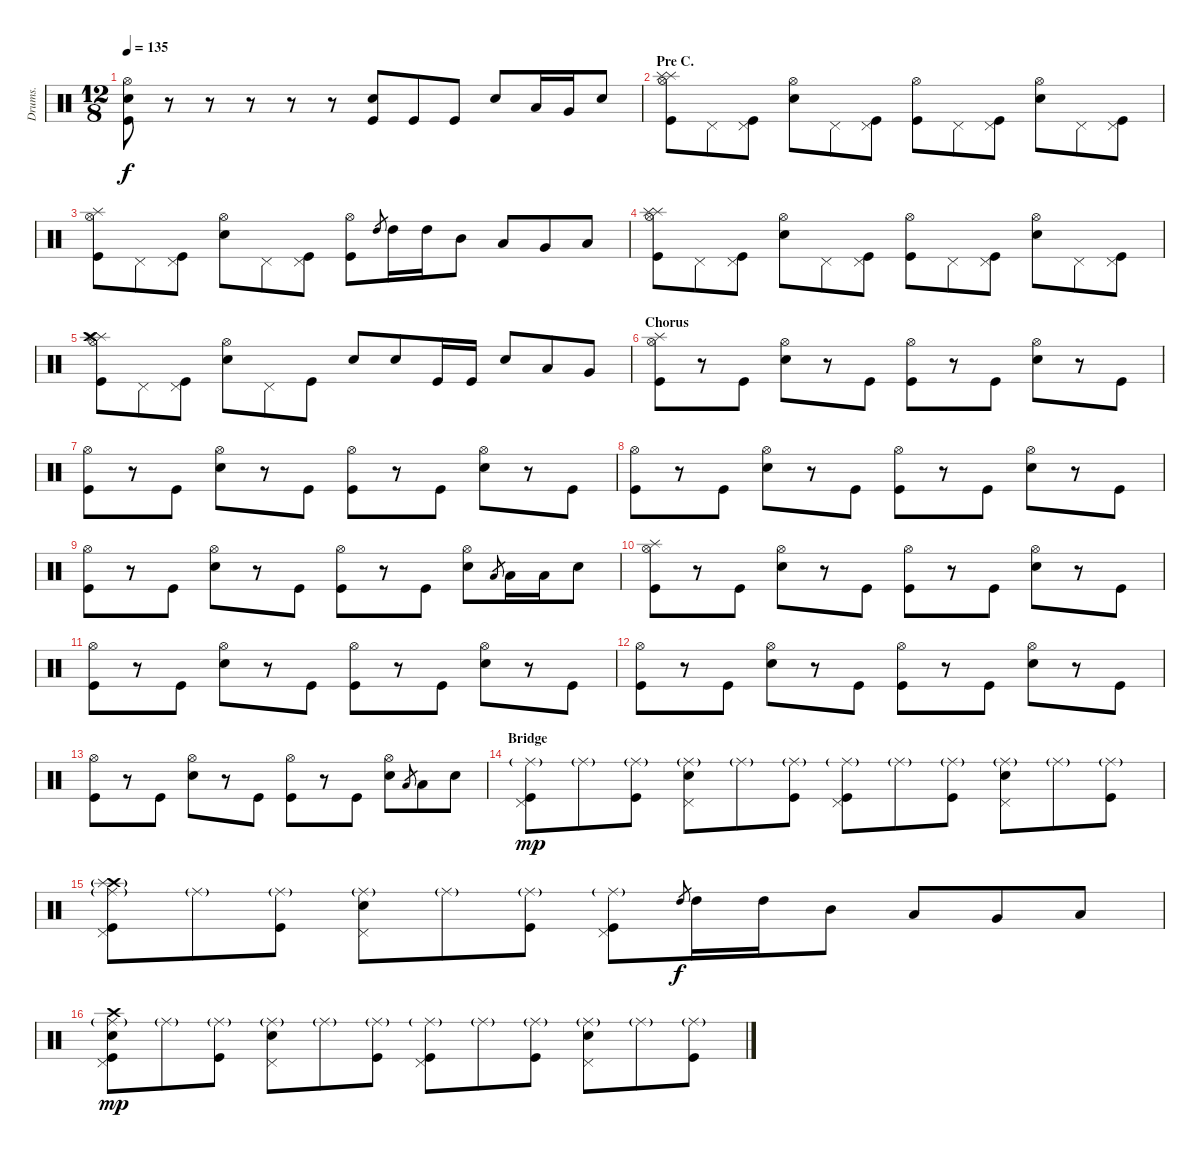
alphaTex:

\track ("Drums." "Drums.") {instrument percussion}
\staff {score}
\articulation defaults
\ts (12 8)
\tempo 135
\clef neutral
\ks c
("Hi-Hat (open)" "Snare (hit) 2" "Kick (hit)").8{dy f} r.8 r.8 r.8 r.8 r.8 ("Snare (hit) 2" "Kick (hit)").8 "Kick (hit)".8 "Kick (hit)".8 "Snare (hit) 2".8 "Low Tom (hit)".16 "Very Low Tom (hit)".16 "Snare (hit) 2".8 |
\section ("" "Pre C.")
("Hi-Hat (open)" "Splash (hit)" "Splash (hit)" "Kick (hit)").8 "Pedal Hi-Hat (hit)".8 ("Pedal Hi-Hat (hit)" "Kick (hit)").8 ("Hi-Hat (open)" "Snare (hit) 2").8 "Pedal Hi-Hat (hit)".8 ("Pedal Hi-Hat (hit)" "Kick (hit)").8 ("Hi-Hat (open)" "Kick (hit)").8 "Pedal Hi-Hat (hit)".8 ("Pedal Hi-Hat (hit)" "Kick (hit)").8 ("Hi-Hat (open)" "Snare (hit) 2").8 "Pedal Hi-Hat (hit)".8 ("Pedal Hi-Hat (hit)" "Kick (hit)").8 |
("Hi-Hat (open)" "Splash (hit)" "Kick (hit)").8 "Pedal Hi-Hat (hit)".8 ("Pedal Hi-Hat (hit)" "Kick (hit)").8 ("Hi-Hat (open)" "Snare (hit) 2").8 "Pedal Hi-Hat (hit)".8 ("Pedal Hi-Hat (hit)" "Kick (hit)").8 ("Hi-Hat (open)" "Kick (hit)").8 "High Tom (hit)".8{gr} "High Tom (hit)".16 "High Tom (hit)".16 "Mid Tom (hit)".8 "Low Tom (hit)".8 "Very Low Tom (hit)".8 "Low Floor Tom (hit)".8 |
("Hi-Hat (open)" "Splash (hit)" "Splash (hit)" "Kick (hit)").8 "Pedal Hi-Hat (hit)".8 ("Pedal Hi-Hat (hit)" "Kick (hit)").8 ("Hi-Hat (open)" "Snare (hit) 2").8 "Pedal Hi-Hat (hit)".8 ("Pedal Hi-Hat (hit)" "Kick (hit)").8 ("Hi-Hat (open)" "Kick (hit)").8 "Pedal Hi-Hat (hit)".8 ("Pedal Hi-Hat (hit)" "Kick (hit)").8 ("Hi-Hat (open)" "Snare (hit) 2").8 "Pedal Hi-Hat (hit)".8 ("Pedal Hi-Hat (hit)" "Kick (hit)").8 |
("Hi-Hat (open)" "Splash (hit)" "Splash (hit)" "Crash high (hit)" "Kick (hit)").8 "Pedal Hi-Hat (hit)".8 ("Pedal Hi-Hat (hit)" "Kick (hit)").8 ("Hi-Hat (open)" "Snare (hit) 2").8 "Pedal Hi-Hat (hit)".8 "Kick (hit)".8 "Snare (hit) 2".8 "Snare (hit) 2".8 "Kick (hit)".16 "Kick (hit)".16 "Snare (hit) 2".8 "Low Tom (hit)".8 "Very Low Tom (hit)".8 |
\section ("" "Chorus")
("Hi-Hat (open)" "Splash (hit)" "Kick (hit)").8 r.8 "Kick (hit)".8 ("Hi-Hat (open)" "Snare (hit) 2").8 r.8 "Kick (hit)".8 ("Hi-Hat (open)" "Kick (hit)").8 r.8 "Kick (hit)".8 ("Hi-Hat (open)" "Snare (hit) 2").8 r.8 "Kick (hit)".8 |
("Hi-Hat (open)" "Kick (hit)").8 r.8 "Kick (hit)".8 ("Hi-Hat (open)" "Snare (hit) 2").8 r.8 "Kick (hit)".8 ("Hi-Hat (open)" "Kick (hit)").8 r.8 "Kick (hit)".8 ("Hi-Hat (open)" "Snare (hit) 2").8 r.8 "Kick (hit)".8 |
("Hi-Hat (open)" "Kick (hit)").8 r.8 "Kick (hit)".8 ("Hi-Hat (open)" "Snare (hit) 2").8 r.8 "Kick (hit)".8 ("Hi-Hat (open)" "Kick (hit)").8 r.8 "Kick (hit)".8 ("Hi-Hat (open)" "Snare (hit) 2").8 r.8 "Kick (hit)".8 |
("Hi-Hat (open)" "Kick (hit)").8 r.8 "Kick (hit)".8 ("Hi-Hat (open)" "Snare (hit) 2").8 r.8 "Kick (hit)".8 ("Hi-Hat (open)" "Kick (hit)").8 r.8 "Kick (hit)".8 ("Hi-Hat (open)" "Snare (hit) 2").8 "Low Tom (hit)".8{gr} "Low Tom (hit)".16 "Low Tom (hit)".16 "Snare (hit) 2".8 |
("Hi-Hat (open)" "Splash (hit)" "Kick (hit)").8 r.8 "Kick (hit)".8 ("Hi-Hat (open)" "Snare (hit) 2").8 r.8 "Kick (hit)".8 ("Hi-Hat (open)" "Kick (hit)").8 r.8 "Kick (hit)".8 ("Hi-Hat (open)" "Snare (hit) 2").8 r.8 "Kick (hit)".8 |
("Hi-Hat (open)" "Kick (hit)").8 r.8 "Kick (hit)".8 ("Hi-Hat (open)" "Snare (hit) 2").8 r.8 "Kick (hit)".8 ("Hi-Hat (open)" "Kick (hit)").8 r.8 "Kick (hit)".8 ("Hi-Hat (open)" "Snare (hit) 2").8 r.8 "Kick (hit)".8 |
("Hi-Hat (open)" "Kick (hit)").8 r.8 "Kick (hit)".8 ("Hi-Hat (open)" "Snare (hit) 2").8 r.8 "Kick (hit)".8 ("Hi-Hat (open)" "Kick (hit)").8 r.8 "Kick (hit)".8 ("Hi-Hat (open)" "Snare (hit) 2").8 r.8 "Kick (hit)".8 |
("Hi-Hat (open)" "Kick (hit)").8 r.8 "Kick (hit)".8 ("Hi-Hat (open)" "Snare (hit) 2").8 r.8 "Kick (hit)".8 ("Hi-Hat (open)" "Kick (hit)").8 r.8 "Kick (hit)".8 ("Hi-Hat (open)" "Snare (hit) 2").8 "Low Tom (hit)".8{gr} "Low Tom (hit)".8 "Snare (hit) 2".8 |
\section ("" "Bridge")
("Ride (middle)"{g} "Pedal Hi-Hat (hit)" "Kick (hit)").8{dy mp} "Ride (middle)"{g}.8 ("Ride (middle)"{g} "Kick (hit)").8 ("Ride (middle)"{g} "Pedal Hi-Hat (hit)" "Snare (hit) 2").8 "Ride (middle)"{g}.8 ("Ride (middle)"{g} "Kick (hit)").8 ("Ride (middle)"{g} "Pedal Hi-Hat (hit)" "Kick (hit)").8 "Ride (middle)"{g}.8 ("Ride (middle)"{g} "Kick (hit)").8 ("Ride (middle)"{g} "Pedal Hi-Hat (hit)" "Snare (hit) 2").8 "Ride (middle)"{g}.8 ("Ride (middle)"{g} "Kick (hit)").8 |
("Ride (middle)"{g} "Crash high (hit)"{g} "Splash (hit)" "Pedal Hi-Hat (hit)" "Kick (hit)").8 "Ride (middle)"{g}.8 ("Ride (middle)"{g} "Kick (hit)").8 ("Ride (middle)"{g} "Pedal Hi-Hat (hit)" "Snare (hit) 2").8 "Ride (middle)"{g}.8 ("Ride (middle)"{g} "Kick (hit)").8 ("Ride (middle)"{g} "Pedal Hi-Hat (hit)" "Kick (hit)").8 "High Tom (hit)".8{gr dy f} "High Tom (hit)".16 "High Tom (hit)".16 "Mid Tom (hit)".8 "Low Tom (hit)".8 "Very Low Tom (hit)".8 "Low Floor Tom (hit)".8 |
("Ride (middle)"{g} "Pedal Hi-Hat (hit)" "Crash high (hit)" "Snare (hit) 2" "Kick (hit)").8{dy mp} "Ride (middle)"{g}.8 ("Ride (middle)"{g} "Kick (hit)").8 ("Ride (middle)"{g} "Pedal Hi-Hat (hit)" "Snare (hit) 2").8 "Ride (middle)"{g}.8 ("Ride (middle)"{g} "Kick (hit)").8 ("Ride (middle)"{g} "Pedal Hi-Hat (hit)" "Kick (hit)").8 "Ride (middle)"{g}.8 ("Ride (middle)"{g} "Kick (hit)").8 ("Ride (middle)"{g} "Pedal Hi-Hat (hit)" "Snare (hit) 2").8 "Ride (middle)"{g}.8 ("Ride (middle)"{g} "Kick (hit)").8
